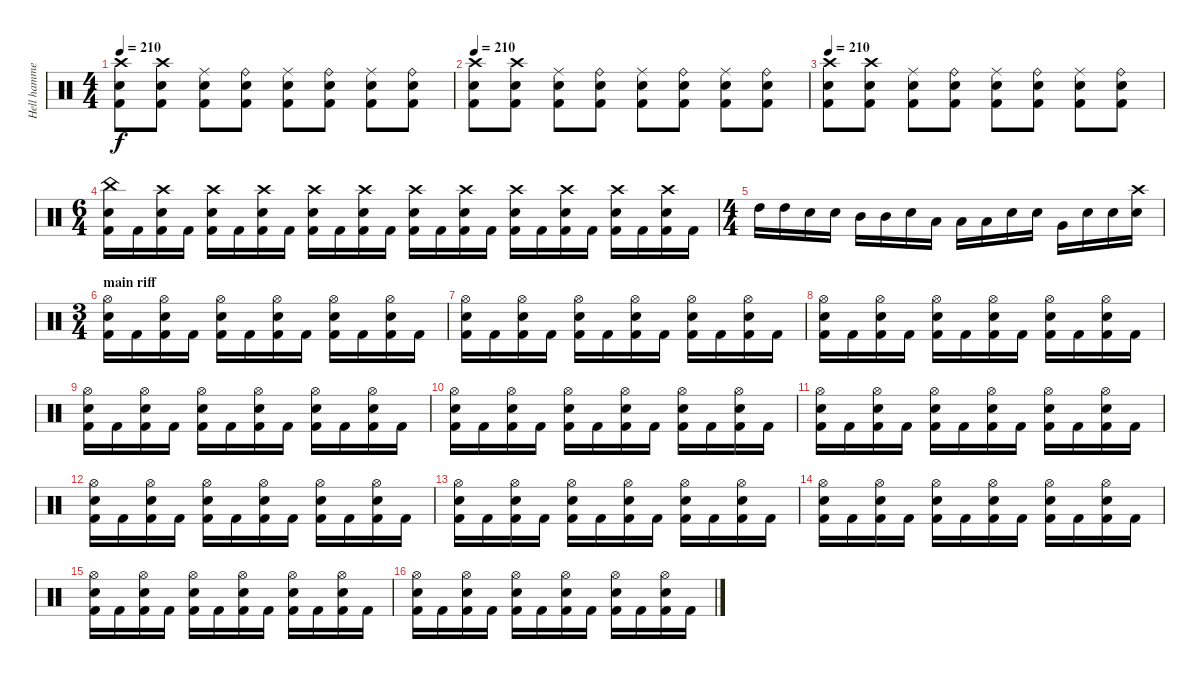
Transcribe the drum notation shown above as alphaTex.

\track ("Hell hammers" "Hell hamme") {instrument percussion}
\staff {score}
\articulation defaults
\ts (4 4)
\tempo 210
\clef neutral
\ks c
("Crash high (hit)" "Snare (hit) 2" "Kick (hit) 2").8{dy f} ("Crash high (hit)" "Snare (hit) 2" "Kick (hit) 2").8 ("Ride (middle)" "Snare (hit) 2" "Kick (hit) 2").8 ("Ride (bell)" "Snare (hit) 2" "Kick (hit) 2").8 ("Ride (middle)" "Snare (hit) 2" "Kick (hit) 2").8 ("Ride (bell)" "Snare (hit) 2" "Kick (hit) 2").8 ("Ride (middle)" "Snare (hit) 2" "Kick (hit) 2").8 ("Ride (bell)" "Snare (hit) 2" "Kick (hit) 2").8 |
\tempo 210
("Crash high (hit)" "Snare (hit) 2" "Kick (hit) 2").8 ("Crash high (hit)" "Snare (hit) 2" "Kick (hit) 2").8 ("Ride (middle)" "Snare (hit) 2" "Kick (hit) 2").8 ("Ride (bell)" "Snare (hit) 2" "Kick (hit) 2").8 ("Ride (middle)" "Snare (hit) 2" "Kick (hit) 2").8 ("Ride (bell)" "Snare (hit) 2" "Kick (hit) 2").8 ("Ride (middle)" "Snare (hit) 2" "Kick (hit) 2").8 ("Ride (bell)" "Snare (hit) 2" "Kick (hit) 2").8 |
\tempo 210
("Crash high (hit)" "Snare (hit) 2" "Kick (hit) 2").8 ("Crash high (hit)" "Snare (hit) 2" "Kick (hit) 2").8 ("Ride (middle)" "Snare (hit) 2" "Kick (hit) 2").8 ("Ride (bell)" "Snare (hit) 2" "Kick (hit) 2").8 ("Ride (middle)" "Snare (hit) 2" "Kick (hit) 2").8 ("Ride (bell)" "Snare (hit) 2" "Kick (hit) 2").8 ("Ride (middle)" "Snare (hit) 2" "Kick (hit) 2").8 ("Ride (bell)" "Snare (hit) 2" "Kick (hit) 2").8 |
\ts (6 4)
("China (hit)" "Snare (hit) 2" "Kick (hit) 2").16 "Kick (hit) 2".16 ("Crash high (hit)" "Snare (hit) 2" "Kick (hit) 2").16 "Kick (hit) 2".16 ("Crash high (hit)" "Snare (hit) 2" "Kick (hit) 2").16 "Kick (hit) 2".16 ("Crash high (hit)" "Snare (hit) 2" "Kick (hit) 2").16 "Kick (hit) 2".16 ("Crash high (hit)" "Snare (hit) 2" "Kick (hit) 2").16 "Kick (hit) 2".16 ("Crash high (hit)" "Snare (hit) 2" "Kick (hit) 2").16 "Kick (hit) 2".16 ("Crash high (hit)" "Snare (hit) 2" "Kick (hit) 2").16 "Kick (hit) 2".16 ("Crash high (hit)" "Snare (hit) 2" "Kick (hit) 2").16 "Kick (hit) 2".16 ("Crash high (hit)" "Snare (hit) 2" "Kick (hit) 2").16 "Kick (hit) 2".16 ("Crash high (hit)" "Snare (hit) 2" "Kick (hit) 2").16 "Kick (hit) 2".16 ("Crash high (hit)" "Snare (hit) 2" "Kick (hit) 2").16 "Kick (hit) 2".16 ("Crash high (hit)" "Snare (hit) 2" "Kick (hit) 2").16 "Kick (hit) 2".16 |
\ts (4 4)
"High Tom (hit)".16 "High Tom (hit)".16 "Snare (hit) 2".16 "Snare (hit) 2".16 "Mid Tom (hit)".16 "Mid Tom (hit)".16 "Snare (hit) 2".16 "Low Tom (hit)".16 "Low Tom (hit)".16 "Low Tom (hit)".16 "Snare (hit) 2".16 "Snare (hit) 2".16 "Very Low Tom (hit)".16 "Snare (hit) 2".16 "Snare (hit) 2".16 ("Crash high (hit)" "Snare (hit) 2").16 |
\ts (3 4)
\section ("" "main riff")
("Hi-Hat (open)" "Snare (hit) 2" "Kick (hit) 2").16 "Kick (hit) 2".16 ("Hi-Hat (open)" "Snare (hit) 2" "Kick (hit) 2").16 "Kick (hit) 2".16 ("Hi-Hat (open)" "Snare (hit) 2" "Kick (hit) 2").16 "Kick (hit) 2".16 ("Hi-Hat (open)" "Snare (hit) 2" "Kick (hit) 2").16 "Kick (hit) 2".16 ("Hi-Hat (open)" "Snare (hit) 2" "Kick (hit) 2").16 "Kick (hit) 2".16 ("Hi-Hat (open)" "Snare (hit) 2" "Kick (hit) 2").16 "Kick (hit) 2".16 |
("Hi-Hat (open)" "Snare (hit) 2" "Kick (hit) 2").16 "Kick (hit) 2".16 ("Hi-Hat (open)" "Snare (hit) 2" "Kick (hit) 2").16 "Kick (hit) 2".16 ("Hi-Hat (open)" "Snare (hit) 2" "Kick (hit) 2").16 "Kick (hit) 2".16 ("Hi-Hat (open)" "Snare (hit) 2" "Kick (hit) 2").16 "Kick (hit) 2".16 ("Hi-Hat (open)" "Snare (hit) 2" "Kick (hit) 2").16 "Kick (hit) 2".16 ("Hi-Hat (open)" "Snare (hit) 2" "Kick (hit) 2").16 "Kick (hit) 2".16 |
("Hi-Hat (open)" "Snare (hit) 2" "Kick (hit) 2").16 "Kick (hit) 2".16 ("Hi-Hat (open)" "Snare (hit) 2" "Kick (hit) 2").16 "Kick (hit) 2".16 ("Hi-Hat (open)" "Snare (hit) 2" "Kick (hit) 2").16 "Kick (hit) 2".16 ("Hi-Hat (open)" "Snare (hit) 2" "Kick (hit) 2").16 "Kick (hit) 2".16 ("Hi-Hat (open)" "Snare (hit) 2" "Kick (hit) 2").16 "Kick (hit) 2".16 ("Hi-Hat (open)" "Snare (hit) 2" "Kick (hit) 2").16 "Kick (hit) 2".16 |
("Hi-Hat (open)" "Snare (hit) 2" "Kick (hit) 2").16 "Kick (hit) 2".16 ("Hi-Hat (open)" "Snare (hit) 2" "Kick (hit) 2").16 "Kick (hit) 2".16 ("Hi-Hat (open)" "Snare (hit) 2" "Kick (hit) 2").16 "Kick (hit) 2".16 ("Hi-Hat (open)" "Snare (hit) 2" "Kick (hit) 2").16 "Kick (hit) 2".16 ("Hi-Hat (open)" "Snare (hit) 2" "Kick (hit) 2").16 "Kick (hit) 2".16 ("Hi-Hat (open)" "Snare (hit) 2" "Kick (hit) 2").16 "Kick (hit) 2".16 |
("Hi-Hat (open)" "Snare (hit) 2" "Kick (hit) 2").16 "Kick (hit) 2".16 ("Hi-Hat (open)" "Snare (hit) 2" "Kick (hit) 2").16 "Kick (hit) 2".16 ("Hi-Hat (open)" "Snare (hit) 2" "Kick (hit) 2").16 "Kick (hit) 2".16 ("Hi-Hat (open)" "Snare (hit) 2" "Kick (hit) 2").16 "Kick (hit) 2".16 ("Hi-Hat (open)" "Snare (hit) 2" "Kick (hit) 2").16 "Kick (hit) 2".16 ("Hi-Hat (open)" "Snare (hit) 2" "Kick (hit) 2").16 "Kick (hit) 2".16 |
("Hi-Hat (open)" "Snare (hit) 2" "Kick (hit) 2").16 "Kick (hit) 2".16 ("Hi-Hat (open)" "Snare (hit) 2" "Kick (hit) 2").16 "Kick (hit) 2".16 ("Hi-Hat (open)" "Snare (hit) 2" "Kick (hit) 2").16 "Kick (hit) 2".16 ("Hi-Hat (open)" "Snare (hit) 2" "Kick (hit) 2").16 "Kick (hit) 2".16 ("Hi-Hat (open)" "Snare (hit) 2" "Kick (hit) 2").16 "Kick (hit) 2".16 ("Hi-Hat (open)" "Snare (hit) 2" "Kick (hit) 2").16 "Kick (hit) 2".16 |
("Hi-Hat (open)" "Snare (hit) 2" "Kick (hit) 2").16 "Kick (hit) 2".16 ("Hi-Hat (open)" "Snare (hit) 2" "Kick (hit) 2").16 "Kick (hit) 2".16 ("Hi-Hat (open)" "Snare (hit) 2" "Kick (hit) 2").16 "Kick (hit) 2".16 ("Hi-Hat (open)" "Snare (hit) 2" "Kick (hit) 2").16 "Kick (hit) 2".16 ("Hi-Hat (open)" "Snare (hit) 2" "Kick (hit) 2").16 "Kick (hit) 2".16 ("Hi-Hat (open)" "Snare (hit) 2" "Kick (hit) 2").16 "Kick (hit) 2".16 |
("Hi-Hat (open)" "Snare (hit) 2" "Kick (hit) 2").16 "Kick (hit) 2".16 ("Hi-Hat (open)" "Snare (hit) 2" "Kick (hit) 2").16 "Kick (hit) 2".16 ("Hi-Hat (open)" "Snare (hit) 2" "Kick (hit) 2").16 "Kick (hit) 2".16 ("Hi-Hat (open)" "Snare (hit) 2" "Kick (hit) 2").16 "Kick (hit) 2".16 ("Hi-Hat (open)" "Snare (hit) 2" "Kick (hit) 2").16 "Kick (hit) 2".16 ("Hi-Hat (open)" "Snare (hit) 2" "Kick (hit) 2").16 "Kick (hit) 2".16 |
("Hi-Hat (open)" "Snare (hit) 2" "Kick (hit) 2").16 "Kick (hit) 2".16 ("Hi-Hat (open)" "Snare (hit) 2" "Kick (hit) 2").16 "Kick (hit) 2".16 ("Hi-Hat (open)" "Snare (hit) 2" "Kick (hit) 2").16 "Kick (hit) 2".16 ("Hi-Hat (open)" "Snare (hit) 2" "Kick (hit) 2").16 "Kick (hit) 2".16 ("Hi-Hat (open)" "Snare (hit) 2" "Kick (hit) 2").16 "Kick (hit) 2".16 ("Hi-Hat (open)" "Snare (hit) 2" "Kick (hit) 2").16 "Kick (hit) 2".16 |
("Hi-Hat (open)" "Snare (hit) 2" "Kick (hit) 2").16 "Kick (hit) 2".16 ("Hi-Hat (open)" "Snare (hit) 2" "Kick (hit) 2").16 "Kick (hit) 2".16 ("Hi-Hat (open)" "Snare (hit) 2" "Kick (hit) 2").16 "Kick (hit) 2".16 ("Hi-Hat (open)" "Snare (hit) 2" "Kick (hit) 2").16 "Kick (hit) 2".16 ("Hi-Hat (open)" "Snare (hit) 2" "Kick (hit) 2").16 "Kick (hit) 2".16 ("Hi-Hat (open)" "Snare (hit) 2" "Kick (hit) 2").16 "Kick (hit) 2".16 |
("Hi-Hat (open)" "Snare (hit) 2" "Kick (hit) 2").16 "Kick (hit) 2".16 ("Hi-Hat (open)" "Snare (hit) 2" "Kick (hit) 2").16 "Kick (hit) 2".16 ("Hi-Hat (open)" "Snare (hit) 2" "Kick (hit) 2").16 "Kick (hit) 2".16 ("Hi-Hat (open)" "Snare (hit) 2" "Kick (hit) 2").16 "Kick (hit) 2".16 ("Hi-Hat (open)" "Snare (hit) 2" "Kick (hit) 2").16 "Kick (hit) 2".16 ("Hi-Hat (open)" "Snare (hit) 2" "Kick (hit) 2").16 "Kick (hit) 2".16
